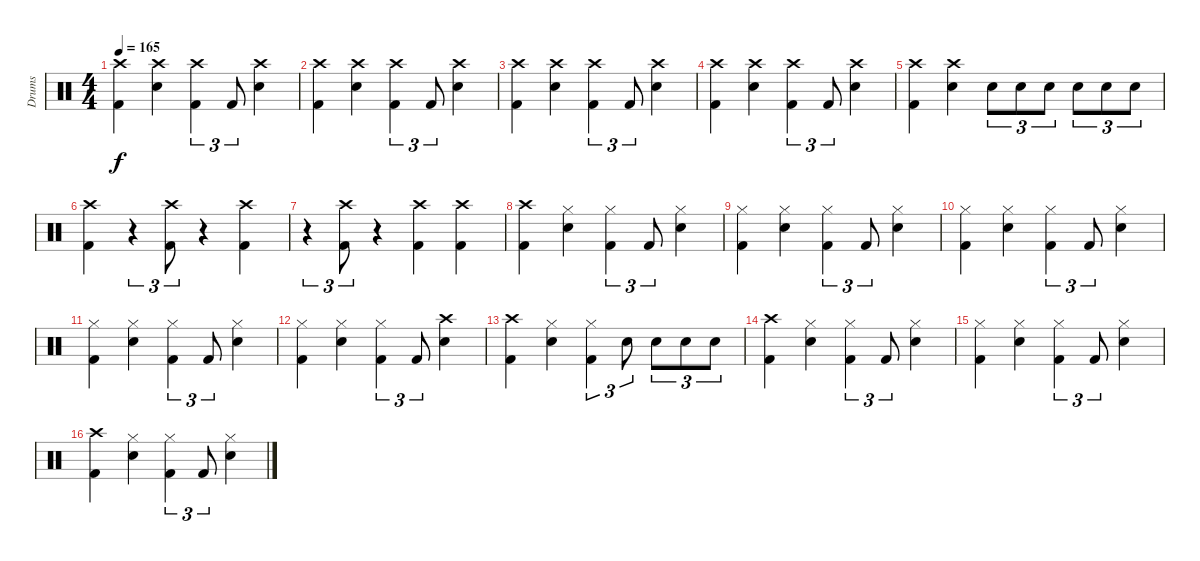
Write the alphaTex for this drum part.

\track ("Drums" "Drums") {instrument percussion}
\staff {score}
\articulation defaults
\ts (4 4)
\tempo 165
\clef neutral
\ks c
("Crash high (hit)" "Kick (hit) 2").4{dy f} ("Crash high (hit)" "Electric Snare (hit)").4 ("Crash high (hit)" "Kick (hit) 2").4{tu (3 2)} "Kick (hit) 2".8{tu (3 2)} ("Crash high (hit)" "Electric Snare (hit)").4 |
("Crash high (hit)" "Kick (hit) 2").4 ("Crash high (hit)" "Electric Snare (hit)").4 ("Crash high (hit)" "Kick (hit) 2").4{tu (3 2)} "Kick (hit) 2".8{tu (3 2)} ("Crash high (hit)" "Electric Snare (hit)").4 |
("Crash high (hit)" "Kick (hit) 2").4 ("Crash high (hit)" "Electric Snare (hit)").4 ("Crash high (hit)" "Kick (hit) 2").4{tu (3 2)} "Kick (hit) 2".8{tu (3 2)} ("Crash high (hit)" "Electric Snare (hit)").4 |
("Crash high (hit)" "Kick (hit) 2").4 ("Crash high (hit)" "Electric Snare (hit)").4 ("Crash high (hit)" "Kick (hit) 2").4{tu (3 2)} "Kick (hit) 2".8{tu (3 2)} ("Crash high (hit)" "Electric Snare (hit)").4 |
("Crash high (hit)" "Kick (hit) 2").4 ("Crash high (hit)" "Electric Snare (hit)").4 "Electric Snare (hit)".8{tu (3 2)} "Electric Snare (hit)".8{tu (3 2)} "Electric Snare (hit)".8{tu (3 2)} "Electric Snare (hit)".8{tu (3 2)} "Electric Snare (hit)".8{tu (3 2)} "Electric Snare (hit)".8{tu (3 2)} |
("Crash high (hit)" "Kick (hit) 2").4 r.4{tu (3 2)} ("Crash high (hit)" "Kick (hit) 2").8{tu (3 2)} r.4 ("Crash high (hit)" "Kick (hit) 2").4 |
r.4{tu (3 2)} ("Crash high (hit)" "Kick (hit) 2").8{tu (3 2)} r.4 ("Crash high (hit)" "Kick (hit) 2").4 ("Crash high (hit)" "Kick (hit) 2").4 |
("Crash high (hit)" "Kick (hit) 2").4 ("Hi-Hat (closed)" "Electric Snare (hit)").4 ("Hi-Hat (closed)" "Kick (hit) 2").4{tu (3 2)} "Kick (hit) 2".8{tu (3 2)} ("Hi-Hat (closed)" "Electric Snare (hit)").4 |
("Hi-Hat (closed)" "Kick (hit) 2").4 ("Hi-Hat (closed)" "Electric Snare (hit)").4 ("Hi-Hat (closed)" "Kick (hit) 2").4{tu (3 2)} "Kick (hit) 2".8{tu (3 2)} ("Hi-Hat (closed)" "Electric Snare (hit)").4 |
("Hi-Hat (closed)" "Kick (hit) 2").4 ("Hi-Hat (closed)" "Electric Snare (hit)").4 ("Hi-Hat (closed)" "Kick (hit) 2").4{tu (3 2)} "Kick (hit) 2".8{tu (3 2)} ("Hi-Hat (closed)" "Electric Snare (hit)").4 |
("Hi-Hat (closed)" "Kick (hit) 2").4 ("Hi-Hat (closed)" "Electric Snare (hit)").4 ("Hi-Hat (closed)" "Kick (hit) 2").4{tu (3 2)} "Kick (hit) 2".8{tu (3 2)} ("Hi-Hat (closed)" "Electric Snare (hit)").4 |
("Hi-Hat (closed)" "Kick (hit) 2").4 ("Hi-Hat (closed)" "Electric Snare (hit)").4 ("Hi-Hat (closed)" "Kick (hit) 2").4{tu (3 2)} "Kick (hit) 2".8{tu (3 2)} ("Crash high (hit)" "Electric Snare (hit)").4 |
("Crash high (hit)" "Kick (hit) 2").4 ("Hi-Hat (closed)" "Electric Snare (hit)").4 ("Hi-Hat (closed)" "Kick (hit) 2").4{tu (3 2)} "Electric Snare (hit)".8{tu (3 2)} "Electric Snare (hit)".8{tu (3 2)} "Electric Snare (hit)".8{tu (3 2)} "Electric Snare (hit)".8{tu (3 2)} |
("Crash high (hit)" "Kick (hit) 2").4 ("Hi-Hat (closed)" "Electric Snare (hit)").4 ("Hi-Hat (closed)" "Kick (hit) 2").4{tu (3 2)} "Kick (hit) 2".8{tu (3 2)} ("Hi-Hat (closed)" "Electric Snare (hit)").4 |
("Hi-Hat (closed)" "Kick (hit) 2").4 ("Hi-Hat (closed)" "Electric Snare (hit)").4 ("Hi-Hat (closed)" "Kick (hit) 2").4{tu (3 2)} "Kick (hit) 2".8{tu (3 2)} ("Hi-Hat (closed)" "Electric Snare (hit)").4 |
("Crash high (hit)" "Kick (hit) 2").4 ("Hi-Hat (closed)" "Electric Snare (hit)").4 ("Hi-Hat (closed)" "Kick (hit) 2").4{tu (3 2)} "Kick (hit) 2".8{tu (3 2)} ("Hi-Hat (closed)" "Electric Snare (hit)").4
